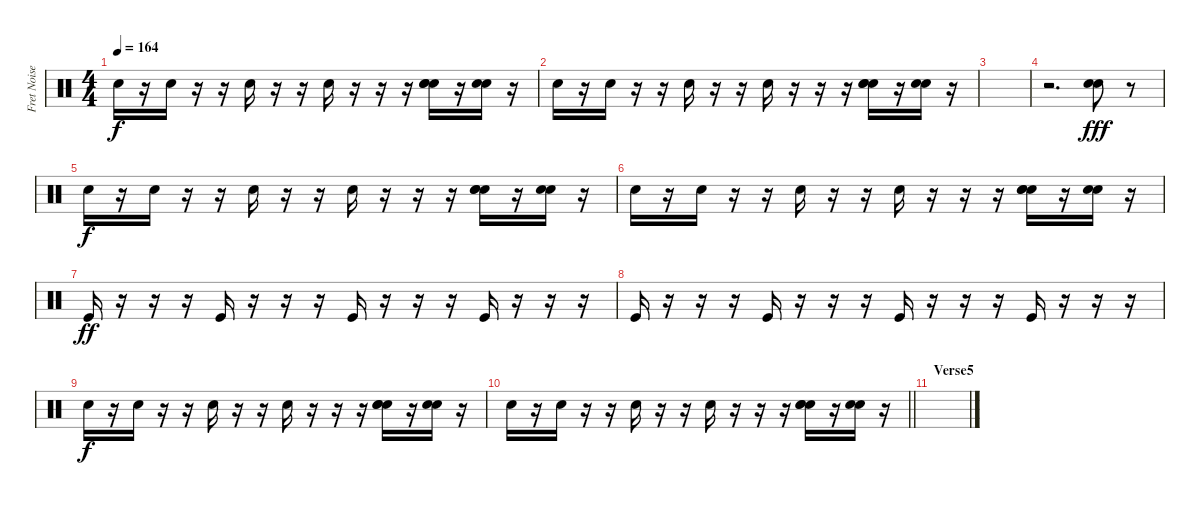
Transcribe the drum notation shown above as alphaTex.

\track ("Fret Noise / Percussion(corpus)" "Fret Noise") {instrument percussion}
\staff {score}
\articulation defaults
\ts (4 4)
\tempo 164
\clef neutral
\ks c "Snare (hit) 2".16{dy f}
r.16 "Snare (hit) 2".16 r.16 r.16 "Snare (hit) 2".16 r.16 r.16 "Snare (hit) 2".16 r.16 r.16 r.16 ("Snare (hit) 2" "Snare (hit) 2" "Snare (hit) 2").16 r.16 ("Snare (hit) 2" "Snare (hit) 2").16 r.16 |
"Snare (hit) 2".16 r.16 "Snare (hit) 2".16 r.16 r.16 "Snare (hit) 2".16 r.16 r.16 "Snare (hit) 2".16 r.16 r.16 r.16 ("Snare (hit) 2" "Snare (hit) 2" "Snare (hit) 2").16 r.16 ("Snare (hit) 2" "Snare (hit) 2").16 r.16 |
|
r.2{d} ("Snare (hit) 2" "Snare (hit) 2").8{dy fff} r.8 |
"Snare (hit) 2".16{dy f} r.16 "Snare (hit) 2".16 r.16 r.16 "Snare (hit) 2".16 r.16 r.16 "Snare (hit) 2".16 r.16 r.16 r.16 ("Snare (hit) 2" "Snare (hit) 2" "Snare (hit) 2").16 r.16 ("Snare (hit) 2" "Snare (hit) 2").16 r.16 |
"Snare (hit) 2".16 r.16 "Snare (hit) 2".16 r.16 r.16 "Snare (hit) 2".16 r.16 r.16 "Snare (hit) 2".16 r.16 r.16 r.16 ("Snare (hit) 2" "Snare (hit) 2" "Snare (hit) 2").16 r.16 ("Snare (hit) 2" "Snare (hit) 2").16 r.16 |
"Kick (hit)".16{dy ff} r.16 r.16 r.16 "Kick (hit)".16 r.16 r.16 r.16 "Kick (hit)".16 r.16 r.16 r.16 "Kick (hit)".16 r.16 r.16 r.16 |
"Kick (hit)".16 r.16 r.16 r.16 "Kick (hit)".16 r.16 r.16 r.16 "Kick (hit)".16 r.16 r.16 r.16 "Kick (hit)".16 r.16 r.16 r.16 |
"Snare (hit) 2".16{dy f} r.16 "Snare (hit) 2".16 r.16 r.16 "Snare (hit) 2".16 r.16 r.16 "Snare (hit) 2".16 r.16 r.16 r.16 ("Snare (hit) 2" "Snare (hit) 2" "Snare (hit) 2").16 r.16 ("Snare (hit) 2" "Snare (hit) 2").16 r.16 |
\barLineRight lightlight "Snare (hit) 2".16
r.16 "Snare (hit) 2".16 r.16 r.16 "Snare (hit) 2".16 r.16 r.16 "Snare (hit) 2".16 r.16 r.16 r.16 ("Snare (hit) 2" "Snare (hit) 2" "Snare (hit) 2").16 r.16 ("Snare (hit) 2" "Snare (hit) 2").16 r.16 |
\section ("" "Verse5")
